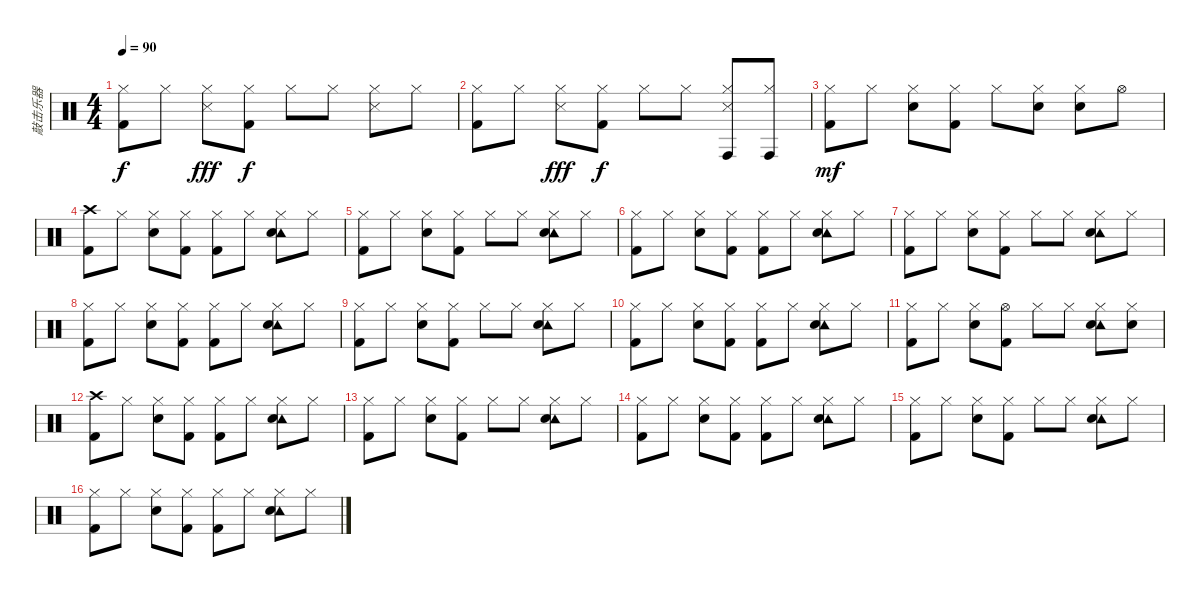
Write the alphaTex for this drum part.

\track ("敲击乐器" "敲击乐器") {instrument percussion}
\staff {score}
\articulation defaults
\ts (4 4)
\tempo 90
\clef neutral
\ks c
("Hi-Hat (closed)" "Kick (hit) 2").8{dy f} "Hi-Hat (closed)".8 ("Hi-Hat (closed)" "Snare (side stick) 3").8{dy fff} ("Hi-Hat (closed)" "Kick (hit) 2").8{dy f} "Hi-Hat (closed)".8 "Hi-Hat (closed)".8 ("Hi-Hat (closed)" "Snare (side stick) 3").8 "Hi-Hat (closed)".8 |
("Hi-Hat (closed)" "Kick (hit) 2").8 "Hi-Hat (closed)".8 ("Hi-Hat (closed)" "Snare (side stick) 3").8{dy fff} ("Hi-Hat (closed)" "Kick (hit) 2").8{dy f} "Hi-Hat (closed)".8 "Hi-Hat (closed)".8 ("Hi-Hat (closed)" "Conga high (hit)" "Snare (side stick) 3").8 ("Hi-Hat (closed)" "Conga high (hit)").8 |
("Hi-Hat (closed)" "Kick (hit) 2").8{dy mf} "Hi-Hat (closed)".8 ("Hi-Hat (closed)" "Snare (hit) 2").8 ("Hi-Hat (closed)" "Kick (hit) 2").8 "Hi-Hat (closed)".8 ("Hi-Hat (closed)" "Snare (hit) 2").8 ("Hi-Hat (closed)" "Snare (hit) 2").8 "Hi-Hat (open)".8 |
("Crash high (hit)" "Kick (hit) 2").8 "Hi-Hat (closed)".8 ("Hi-Hat (closed)" "Snare (hit) 2").8 ("Hi-Hat (closed)" "Kick (hit) 2").8 ("Hi-Hat (closed)" "Kick (hit) 2").8 "Hi-Hat (closed)".8 ("Hi-Hat (closed)" "Tambourine (hit)" "Snare (hit) 2").8 "Hi-Hat (closed)".8 |
("Hi-Hat (closed)" "Kick (hit) 2").8 "Hi-Hat (closed)".8 ("Hi-Hat (closed)" "Snare (hit) 2").8 ("Hi-Hat (closed)" "Kick (hit) 2").8 "Hi-Hat (closed)".8 "Hi-Hat (closed)".8 ("Hi-Hat (closed)" "Tambourine (hit)" "Snare (hit) 2").8 "Hi-Hat (closed)".8 |
("Hi-Hat (closed)" "Kick (hit) 2").8 "Hi-Hat (closed)".8 ("Hi-Hat (closed)" "Snare (hit) 2").8 ("Hi-Hat (closed)" "Kick (hit) 2").8 ("Hi-Hat (closed)" "Kick (hit) 2").8 "Hi-Hat (closed)".8 ("Hi-Hat (closed)" "Tambourine (hit)" "Snare (hit) 2").8 "Hi-Hat (closed)".8 |
("Hi-Hat (closed)" "Kick (hit) 2").8 "Hi-Hat (closed)".8 ("Hi-Hat (closed)" "Snare (hit) 2").8 ("Hi-Hat (closed)" "Kick (hit) 2").8 "Hi-Hat (closed)".8 "Hi-Hat (closed)".8 ("Hi-Hat (closed)" "Tambourine (hit)" "Snare (hit) 2").8 "Hi-Hat (closed)".8 |
("Hi-Hat (closed)" "Kick (hit) 2").8 "Hi-Hat (closed)".8 ("Hi-Hat (closed)" "Snare (hit) 2").8 ("Hi-Hat (closed)" "Kick (hit) 2").8 ("Hi-Hat (closed)" "Kick (hit) 2").8 "Hi-Hat (closed)".8 ("Hi-Hat (closed)" "Tambourine (hit)" "Snare (hit) 2").8 "Hi-Hat (closed)".8 |
("Hi-Hat (closed)" "Kick (hit) 2").8 "Hi-Hat (closed)".8 ("Hi-Hat (closed)" "Snare (hit) 2").8 ("Hi-Hat (closed)" "Kick (hit) 2").8 "Hi-Hat (closed)".8 "Hi-Hat (closed)".8 ("Hi-Hat (closed)" "Tambourine (hit)" "Snare (hit) 2").8 "Hi-Hat (closed)".8 |
("Hi-Hat (closed)" "Kick (hit) 2").8 "Hi-Hat (closed)".8 ("Hi-Hat (closed)" "Snare (hit) 2").8 ("Hi-Hat (closed)" "Kick (hit) 2").8 ("Hi-Hat (closed)" "Kick (hit) 2").8 "Hi-Hat (closed)".8 ("Hi-Hat (closed)" "Tambourine (hit)" "Snare (hit) 2").8 "Hi-Hat (closed)".8 |
("Hi-Hat (closed)" "Kick (hit) 2").8 "Hi-Hat (closed)".8 ("Hi-Hat (closed)" "Snare (hit) 2").8 ("Hi-Hat (open)" "Kick (hit) 2").8 "Hi-Hat (closed)".8 "Hi-Hat (closed)".8 ("Hi-Hat (closed)" "Tambourine (hit)" "Snare (hit) 2").8 ("Hi-Hat (closed)" "Snare (hit) 2").8 |
("Crash high (hit)" "Kick (hit) 2").8 "Hi-Hat (closed)".8 ("Hi-Hat (closed)" "Snare (hit) 2").8 ("Hi-Hat (closed)" "Kick (hit) 2").8 ("Hi-Hat (closed)" "Kick (hit) 2").8 "Hi-Hat (closed)".8 ("Hi-Hat (closed)" "Tambourine (hit)" "Snare (hit) 2").8 "Hi-Hat (closed)".8 |
("Hi-Hat (closed)" "Kick (hit) 2").8 "Hi-Hat (closed)".8 ("Hi-Hat (closed)" "Snare (hit) 2").8 ("Hi-Hat (closed)" "Kick (hit) 2").8 "Hi-Hat (closed)".8 "Hi-Hat (closed)".8 ("Hi-Hat (closed)" "Tambourine (hit)" "Snare (hit) 2").8 "Hi-Hat (closed)".8 |
("Hi-Hat (closed)" "Kick (hit) 2").8 "Hi-Hat (closed)".8 ("Hi-Hat (closed)" "Snare (hit) 2").8 ("Hi-Hat (closed)" "Kick (hit) 2").8 ("Hi-Hat (closed)" "Kick (hit) 2").8 "Hi-Hat (closed)".8 ("Hi-Hat (closed)" "Tambourine (hit)" "Snare (hit) 2").8 "Hi-Hat (closed)".8 |
("Hi-Hat (closed)" "Kick (hit) 2").8 "Hi-Hat (closed)".8 ("Hi-Hat (closed)" "Snare (hit) 2").8 ("Hi-Hat (closed)" "Kick (hit) 2").8 "Hi-Hat (closed)".8 "Hi-Hat (closed)".8 ("Hi-Hat (closed)" "Tambourine (hit)" "Snare (hit) 2").8 "Hi-Hat (closed)".8 |
("Hi-Hat (closed)" "Kick (hit) 2").8 "Hi-Hat (closed)".8 ("Hi-Hat (closed)" "Snare (hit) 2").8 ("Hi-Hat (closed)" "Kick (hit) 2").8 ("Hi-Hat (closed)" "Kick (hit) 2").8 "Hi-Hat (closed)".8 ("Hi-Hat (closed)" "Tambourine (hit)" "Snare (hit) 2").8 "Hi-Hat (closed)".8
